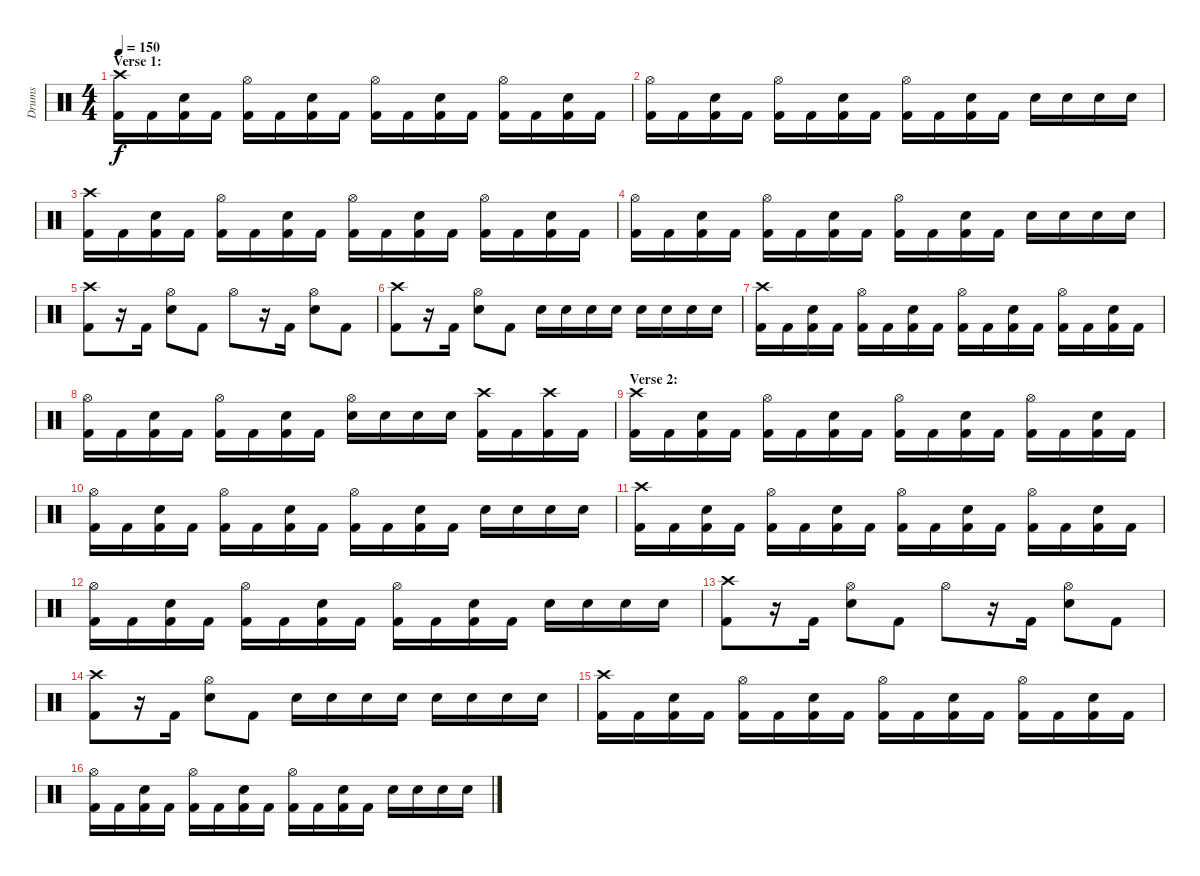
\track ("Drums" "Drums") {instrument percussion}
\staff {score}
\articulation defaults
\ts (4 4)
\section ("" "Verse 1:")
\tempo 150
\clef neutral
\ks c
("Crash high (hit)" "Kick (hit) 2").16{dy f} "Kick (hit) 2".16 ("Electric Snare (hit)" "Kick (hit) 2").16 "Kick (hit) 2".16 ("Hi-Hat (open)" "Kick (hit) 2").16 "Kick (hit) 2".16 ("Electric Snare (hit)" "Kick (hit) 2").16 "Kick (hit) 2".16 ("Hi-Hat (open)" "Kick (hit) 2").16 "Kick (hit) 2".16 ("Electric Snare (hit)" "Kick (hit) 2").16 "Kick (hit) 2".16 ("Hi-Hat (open)" "Kick (hit) 2").16 "Kick (hit) 2".16 ("Electric Snare (hit)" "Kick (hit) 2").16 "Kick (hit) 2".16 |
("Hi-Hat (open)" "Kick (hit) 2").16 "Kick (hit) 2".16 ("Electric Snare (hit)" "Kick (hit) 2").16 "Kick (hit) 2".16 ("Hi-Hat (open)" "Kick (hit) 2").16 "Kick (hit) 2".16 ("Electric Snare (hit)" "Kick (hit) 2").16 "Kick (hit) 2".16 ("Hi-Hat (open)" "Kick (hit) 2").16 "Kick (hit) 2".16 ("Electric Snare (hit)" "Kick (hit) 2").16 "Kick (hit) 2".16 "Electric Snare (hit)".16 "Electric Snare (hit)".16 "Electric Snare (hit)".16 "Electric Snare (hit)".16 |
("Crash high (hit)" "Kick (hit) 2").16 "Kick (hit) 2".16 ("Electric Snare (hit)" "Kick (hit) 2").16 "Kick (hit) 2".16 ("Hi-Hat (open)" "Kick (hit) 2").16 "Kick (hit) 2".16 ("Electric Snare (hit)" "Kick (hit) 2").16 "Kick (hit) 2".16 ("Hi-Hat (open)" "Kick (hit) 2").16 "Kick (hit) 2".16 ("Electric Snare (hit)" "Kick (hit) 2").16 "Kick (hit) 2".16 ("Hi-Hat (open)" "Kick (hit) 2").16 "Kick (hit) 2".16 ("Electric Snare (hit)" "Kick (hit) 2").16 "Kick (hit) 2".16 |
("Hi-Hat (open)" "Kick (hit) 2").16 "Kick (hit) 2".16 ("Electric Snare (hit)" "Kick (hit) 2").16 "Kick (hit) 2".16 ("Hi-Hat (open)" "Kick (hit) 2").16 "Kick (hit) 2".16 ("Electric Snare (hit)" "Kick (hit) 2").16 "Kick (hit) 2".16 ("Hi-Hat (open)" "Kick (hit) 2").16 "Kick (hit) 2".16 ("Electric Snare (hit)" "Kick (hit) 2").16 "Kick (hit) 2".16 "Electric Snare (hit)".16 "Electric Snare (hit)".16 "Electric Snare (hit)".16 "Electric Snare (hit)".16 |
("Crash high (hit)" "Kick (hit) 2").8 r.16 "Kick (hit) 2".16 ("Hi-Hat (open)" "Electric Snare (hit)").8 "Kick (hit) 2".8 "Hi-Hat (open)".8 r.16 "Kick (hit) 2".16 ("Hi-Hat (open)" "Electric Snare (hit)").8 "Kick (hit) 2".8 |
("Crash high (hit)" "Kick (hit) 2").8 r.16 "Kick (hit) 2".16 ("Hi-Hat (open)" "Electric Snare (hit)").8 "Kick (hit) 2".8 "Electric Snare (hit)".16 "Electric Snare (hit)".16 "Electric Snare (hit)".16 "Electric Snare (hit)".16 "Electric Snare (hit)".16 "Electric Snare (hit)".16 "Electric Snare (hit)".16 "Electric Snare (hit)".16 |
("Crash high (hit)" "Kick (hit) 2").16 "Kick (hit) 2".16 ("Electric Snare (hit)" "Kick (hit) 2").16 "Kick (hit) 2".16 ("Hi-Hat (open)" "Kick (hit) 2").16 "Kick (hit) 2".16 ("Electric Snare (hit)" "Kick (hit) 2").16 "Kick (hit) 2".16 ("Hi-Hat (open)" "Kick (hit) 2").16 "Kick (hit) 2".16 ("Electric Snare (hit)" "Kick (hit) 2").16 "Kick (hit) 2".16 ("Hi-Hat (open)" "Kick (hit) 2").16 "Kick (hit) 2".16 ("Electric Snare (hit)" "Kick (hit) 2").16 "Kick (hit) 2".16 |
("Hi-Hat (open)" "Kick (hit) 2").16 "Kick (hit) 2".16 ("Electric Snare (hit)" "Kick (hit) 2").16 "Kick (hit) 2".16 ("Hi-Hat (open)" "Kick (hit) 2").16 "Kick (hit) 2".16 ("Electric Snare (hit)" "Kick (hit) 2").16 "Kick (hit) 2".16 ("Hi-Hat (open)" "Electric Snare (hit)").16 "Electric Snare (hit)".16 "Electric Snare (hit)".16 "Electric Snare (hit)".16 ("Crash high (hit)" "Kick (hit) 2").16 "Kick (hit) 2".16 ("Crash high (hit)" "Kick (hit) 2").16 "Kick (hit) 2".16 |
\section ("" "Verse 2:")
("Crash high (hit)" "Kick (hit) 2").16 "Kick (hit) 2".16 ("Electric Snare (hit)" "Kick (hit) 2").16 "Kick (hit) 2".16 ("Hi-Hat (open)" "Kick (hit) 2").16 "Kick (hit) 2".16 ("Electric Snare (hit)" "Kick (hit) 2").16 "Kick (hit) 2".16 ("Hi-Hat (open)" "Kick (hit) 2").16 "Kick (hit) 2".16 ("Electric Snare (hit)" "Kick (hit) 2").16 "Kick (hit) 2".16 ("Hi-Hat (open)" "Kick (hit) 2").16 "Kick (hit) 2".16 ("Electric Snare (hit)" "Kick (hit) 2").16 "Kick (hit) 2".16 |
("Hi-Hat (open)" "Kick (hit) 2").16 "Kick (hit) 2".16 ("Electric Snare (hit)" "Kick (hit) 2").16 "Kick (hit) 2".16 ("Hi-Hat (open)" "Kick (hit) 2").16 "Kick (hit) 2".16 ("Electric Snare (hit)" "Kick (hit) 2").16 "Kick (hit) 2".16 ("Hi-Hat (open)" "Kick (hit) 2").16 "Kick (hit) 2".16 ("Electric Snare (hit)" "Kick (hit) 2").16 "Kick (hit) 2".16 "Electric Snare (hit)".16 "Electric Snare (hit)".16 "Electric Snare (hit)".16 "Electric Snare (hit)".16 |
("Crash high (hit)" "Kick (hit) 2").16 "Kick (hit) 2".16 ("Electric Snare (hit)" "Kick (hit) 2").16 "Kick (hit) 2".16 ("Hi-Hat (open)" "Kick (hit) 2").16 "Kick (hit) 2".16 ("Electric Snare (hit)" "Kick (hit) 2").16 "Kick (hit) 2".16 ("Hi-Hat (open)" "Kick (hit) 2").16 "Kick (hit) 2".16 ("Electric Snare (hit)" "Kick (hit) 2").16 "Kick (hit) 2".16 ("Hi-Hat (open)" "Kick (hit) 2").16 "Kick (hit) 2".16 ("Electric Snare (hit)" "Kick (hit) 2").16 "Kick (hit) 2".16 |
("Hi-Hat (open)" "Kick (hit) 2").16 "Kick (hit) 2".16 ("Electric Snare (hit)" "Kick (hit) 2").16 "Kick (hit) 2".16 ("Hi-Hat (open)" "Kick (hit) 2").16 "Kick (hit) 2".16 ("Electric Snare (hit)" "Kick (hit) 2").16 "Kick (hit) 2".16 ("Hi-Hat (open)" "Kick (hit) 2").16 "Kick (hit) 2".16 ("Electric Snare (hit)" "Kick (hit) 2").16 "Kick (hit) 2".16 "Electric Snare (hit)".16 "Electric Snare (hit)".16 "Electric Snare (hit)".16 "Electric Snare (hit)".16 |
("Crash high (hit)" "Kick (hit) 2").8 r.16 "Kick (hit) 2".16 ("Hi-Hat (open)" "Electric Snare (hit)").8 "Kick (hit) 2".8 "Hi-Hat (open)".8 r.16 "Kick (hit) 2".16 ("Hi-Hat (open)" "Electric Snare (hit)").8 "Kick (hit) 2".8 |
("Crash high (hit)" "Kick (hit) 2").8 r.16 "Kick (hit) 2".16 ("Hi-Hat (open)" "Electric Snare (hit)").8 "Kick (hit) 2".8 "Electric Snare (hit)".16 "Electric Snare (hit)".16 "Electric Snare (hit)".16 "Electric Snare (hit)".16 "Electric Snare (hit)".16 "Electric Snare (hit)".16 "Electric Snare (hit)".16 "Electric Snare (hit)".16 |
("Crash high (hit)" "Kick (hit) 2").16 "Kick (hit) 2".16 ("Electric Snare (hit)" "Kick (hit) 2").16 "Kick (hit) 2".16 ("Hi-Hat (open)" "Kick (hit) 2").16 "Kick (hit) 2".16 ("Electric Snare (hit)" "Kick (hit) 2").16 "Kick (hit) 2".16 ("Hi-Hat (open)" "Kick (hit) 2").16 "Kick (hit) 2".16 ("Electric Snare (hit)" "Kick (hit) 2").16 "Kick (hit) 2".16 ("Hi-Hat (open)" "Kick (hit) 2").16 "Kick (hit) 2".16 ("Electric Snare (hit)" "Kick (hit) 2").16 "Kick (hit) 2".16 |
("Hi-Hat (open)" "Kick (hit) 2").16 "Kick (hit) 2".16 ("Electric Snare (hit)" "Kick (hit) 2").16 "Kick (hit) 2".16 ("Hi-Hat (open)" "Kick (hit) 2").16 "Kick (hit) 2".16 ("Electric Snare (hit)" "Kick (hit) 2").16 "Kick (hit) 2".16 ("Hi-Hat (open)" "Kick (hit) 2").16 "Kick (hit) 2".16 ("Electric Snare (hit)" "Kick (hit) 2").16 "Kick (hit) 2".16 "Electric Snare (hit)".16 "Electric Snare (hit)".16 "Electric Snare (hit)".16 "Electric Snare (hit)".16
